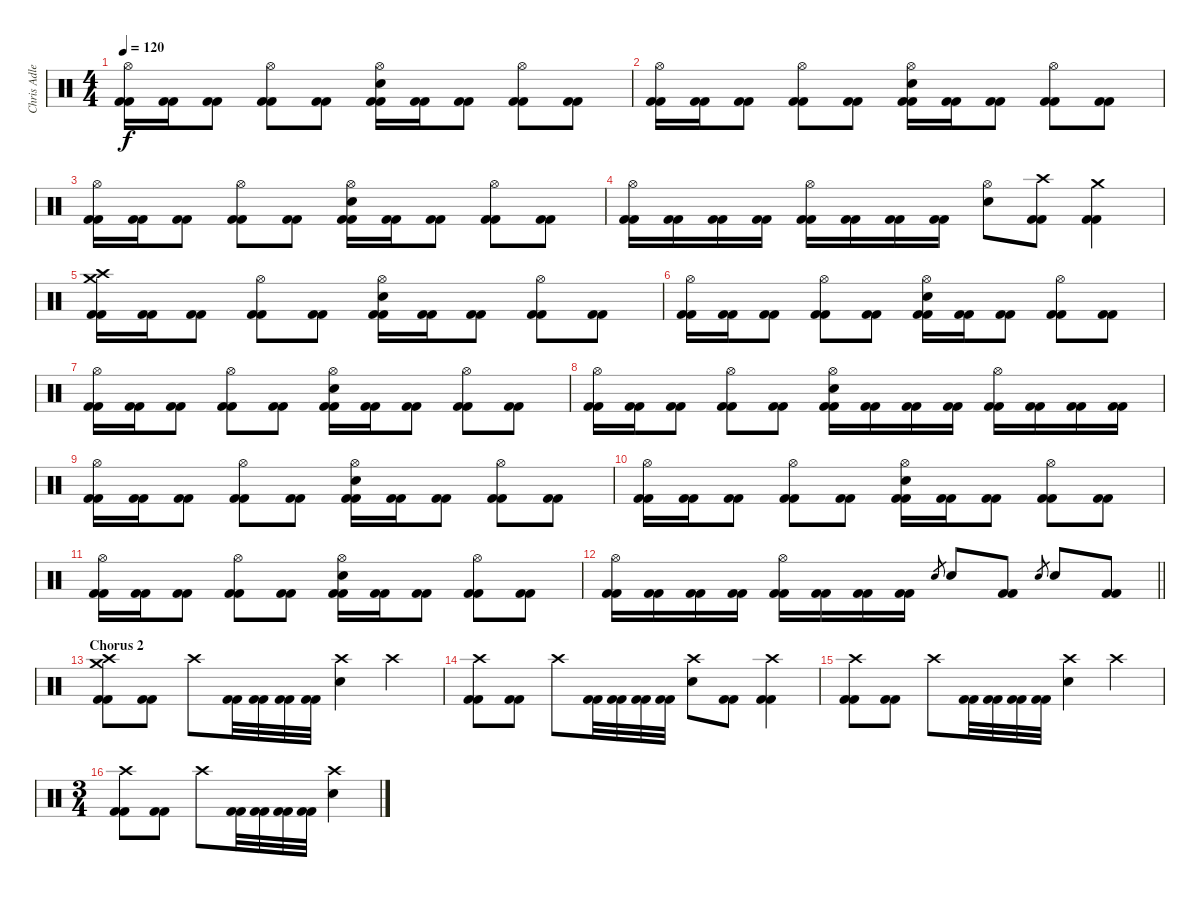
\track ("Chris Adler" "Chris Adle") {instrument percussion}
\staff {score}
\articulation defaults
\ts (4 4)
\tempo 120
\clef neutral
\ks c
("Hi-Hat (open)" "Kick (hit) 2" "Kick (hit) 2").16{dy f} ("Kick (hit) 2" "Kick (hit) 2").16 ("Kick (hit) 2" "Kick (hit) 2").8 ("Hi-Hat (open)" "Kick (hit) 2" "Kick (hit) 2").8 ("Kick (hit) 2" "Kick (hit) 2").8 ("Hi-Hat (open)" "Electric Snare (hit)" "Kick (hit) 2" "Kick (hit) 2").16 ("Kick (hit) 2" "Kick (hit) 2").16 ("Kick (hit) 2" "Kick (hit) 2").8 ("Hi-Hat (open)" "Kick (hit) 2" "Kick (hit) 2").8 ("Kick (hit) 2" "Kick (hit) 2").8 |
("Hi-Hat (open)" "Kick (hit) 2" "Kick (hit) 2").16 ("Kick (hit) 2" "Kick (hit) 2").16 ("Kick (hit) 2" "Kick (hit) 2").8 ("Hi-Hat (open)" "Kick (hit) 2" "Kick (hit) 2").8 ("Kick (hit) 2" "Kick (hit) 2").8 ("Hi-Hat (open)" "Electric Snare (hit)" "Kick (hit) 2" "Kick (hit) 2").16 ("Kick (hit) 2" "Kick (hit) 2").16 ("Kick (hit) 2" "Kick (hit) 2").8 ("Hi-Hat (open)" "Kick (hit) 2" "Kick (hit) 2").8 ("Kick (hit) 2" "Kick (hit) 2").8 |
("Hi-Hat (open)" "Kick (hit) 2" "Kick (hit) 2").16 ("Kick (hit) 2" "Kick (hit) 2").16 ("Kick (hit) 2" "Kick (hit) 2").8 ("Hi-Hat (open)" "Kick (hit) 2" "Kick (hit) 2").8 ("Kick (hit) 2" "Kick (hit) 2").8 ("Hi-Hat (open)" "Electric Snare (hit)" "Kick (hit) 2" "Kick (hit) 2").16 ("Kick (hit) 2" "Kick (hit) 2").16 ("Kick (hit) 2" "Kick (hit) 2").8 ("Hi-Hat (open)" "Kick (hit) 2" "Kick (hit) 2").8 ("Kick (hit) 2" "Kick (hit) 2").8 |
("Hi-Hat (open)" "Kick (hit) 2" "Kick (hit) 2").16 ("Kick (hit) 2" "Kick (hit) 2").16 ("Kick (hit) 2" "Kick (hit) 2").16 ("Kick (hit) 2" "Kick (hit) 2").16 ("Hi-Hat (open)" "Kick (hit) 2" "Kick (hit) 2").16 ("Kick (hit) 2" "Kick (hit) 2").16 ("Kick (hit) 2" "Kick (hit) 2").16 ("Kick (hit) 2" "Kick (hit) 2").16 ("Hi-Hat (open)" "Electric Snare (hit)").8 ("Crash high (hit)" "Kick (hit) 2" "Kick (hit) 2").8 ("Crash medium (hit)" "Kick (hit) 2" "Kick (hit) 2").4 |
("Crash medium (hit)" "Crash high (hit)" "Kick (hit) 2" "Kick (hit) 2").16 ("Kick (hit) 2" "Kick (hit) 2").16 ("Kick (hit) 2" "Kick (hit) 2").8 ("Hi-Hat (open)" "Kick (hit) 2" "Kick (hit) 2").8 ("Kick (hit) 2" "Kick (hit) 2").8 ("Hi-Hat (open)" "Electric Snare (hit)" "Kick (hit) 2" "Kick (hit) 2").16 ("Kick (hit) 2" "Kick (hit) 2").16 ("Kick (hit) 2" "Kick (hit) 2").8 ("Hi-Hat (open)" "Kick (hit) 2" "Kick (hit) 2").8 ("Kick (hit) 2" "Kick (hit) 2").8 |
("Hi-Hat (open)" "Kick (hit) 2" "Kick (hit) 2").16 ("Kick (hit) 2" "Kick (hit) 2").16 ("Kick (hit) 2" "Kick (hit) 2").8 ("Hi-Hat (open)" "Kick (hit) 2" "Kick (hit) 2").8 ("Kick (hit) 2" "Kick (hit) 2").8 ("Hi-Hat (open)" "Electric Snare (hit)" "Kick (hit) 2" "Kick (hit) 2").16 ("Kick (hit) 2" "Kick (hit) 2").16 ("Kick (hit) 2" "Kick (hit) 2").8 ("Hi-Hat (open)" "Kick (hit) 2" "Kick (hit) 2").8 ("Kick (hit) 2" "Kick (hit) 2").8 |
("Hi-Hat (open)" "Kick (hit) 2" "Kick (hit) 2").16 ("Kick (hit) 2" "Kick (hit) 2").16 ("Kick (hit) 2" "Kick (hit) 2").8 ("Hi-Hat (open)" "Kick (hit) 2" "Kick (hit) 2").8 ("Kick (hit) 2" "Kick (hit) 2").8 ("Hi-Hat (open)" "Electric Snare (hit)" "Kick (hit) 2" "Kick (hit) 2").16 ("Kick (hit) 2" "Kick (hit) 2").16 ("Kick (hit) 2" "Kick (hit) 2").8 ("Hi-Hat (open)" "Kick (hit) 2" "Kick (hit) 2").8 ("Kick (hit) 2" "Kick (hit) 2").8 |
("Hi-Hat (open)" "Kick (hit) 2" "Kick (hit) 2").16 ("Kick (hit) 2" "Kick (hit) 2").16 ("Kick (hit) 2" "Kick (hit) 2").8 ("Hi-Hat (open)" "Kick (hit) 2" "Kick (hit) 2").8 ("Kick (hit) 2" "Kick (hit) 2").8 ("Hi-Hat (open)" "Electric Snare (hit)" "Kick (hit) 2" "Kick (hit) 2").16 ("Kick (hit) 2" "Kick (hit) 2").16 ("Kick (hit) 2" "Kick (hit) 2").16 ("Kick (hit) 2" "Kick (hit) 2").16 ("Hi-Hat (open)" "Kick (hit) 2" "Kick (hit) 2").16 ("Kick (hit) 2" "Kick (hit) 2").16 ("Kick (hit) 2" "Kick (hit) 2").16 ("Kick (hit) 2" "Kick (hit) 2").16 |
("Hi-Hat (open)" "Kick (hit) 2" "Kick (hit) 2").16 ("Kick (hit) 2" "Kick (hit) 2").16 ("Kick (hit) 2" "Kick (hit) 2").8 ("Hi-Hat (open)" "Kick (hit) 2" "Kick (hit) 2").8 ("Kick (hit) 2" "Kick (hit) 2").8 ("Hi-Hat (open)" "Electric Snare (hit)" "Kick (hit) 2" "Kick (hit) 2").16 ("Kick (hit) 2" "Kick (hit) 2").16 ("Kick (hit) 2" "Kick (hit) 2").8 ("Hi-Hat (open)" "Kick (hit) 2" "Kick (hit) 2").8 ("Kick (hit) 2" "Kick (hit) 2").8 |
("Hi-Hat (open)" "Kick (hit) 2" "Kick (hit) 2").16 ("Kick (hit) 2" "Kick (hit) 2").16 ("Kick (hit) 2" "Kick (hit) 2").8 ("Hi-Hat (open)" "Kick (hit) 2" "Kick (hit) 2").8 ("Kick (hit) 2" "Kick (hit) 2").8 ("Hi-Hat (open)" "Electric Snare (hit)" "Kick (hit) 2" "Kick (hit) 2").16 ("Kick (hit) 2" "Kick (hit) 2").16 ("Kick (hit) 2" "Kick (hit) 2").8 ("Hi-Hat (open)" "Kick (hit) 2" "Kick (hit) 2").8 ("Kick (hit) 2" "Kick (hit) 2").8 |
("Hi-Hat (open)" "Kick (hit) 2" "Kick (hit) 2").16 ("Kick (hit) 2" "Kick (hit) 2").16 ("Kick (hit) 2" "Kick (hit) 2").8 ("Hi-Hat (open)" "Kick (hit) 2" "Kick (hit) 2").8 ("Kick (hit) 2" "Kick (hit) 2").8 ("Hi-Hat (open)" "Electric Snare (hit)" "Kick (hit) 2" "Kick (hit) 2").16 ("Kick (hit) 2" "Kick (hit) 2").16 ("Kick (hit) 2" "Kick (hit) 2").8 ("Hi-Hat (open)" "Kick (hit) 2" "Kick (hit) 2").8 ("Kick (hit) 2" "Kick (hit) 2").8 |
\barLineRight lightlight
("Hi-Hat (open)" "Kick (hit) 2" "Kick (hit) 2").16 ("Kick (hit) 2" "Kick (hit) 2").16 ("Kick (hit) 2" "Kick (hit) 2").16 ("Kick (hit) 2" "Kick (hit) 2").16 ("Hi-Hat (open)" "Kick (hit) 2" "Kick (hit) 2").16 ("Kick (hit) 2" "Kick (hit) 2").16 ("Kick (hit) 2" "Kick (hit) 2").16 ("Kick (hit) 2" "Kick (hit) 2").16 "Electric Snare (hit)".8{gr} "Electric Snare (hit)".8 ("Kick (hit) 2" "Kick (hit) 2").8 "Electric Snare (hit)".8{gr} "Electric Snare (hit)".8 ("Kick (hit) 2" "Kick (hit) 2").8 |
\section ("" "Chorus 2")
("Crash medium (hit)" "Crash high (hit)" "Kick (hit) 2" "Kick (hit) 2").8 ("Kick (hit) 2" "Kick (hit) 2").8 "Crash high (hit)".8 ("Kick (hit) 2" "Kick (hit) 2").32 ("Kick (hit) 2" "Kick (hit) 2").32 ("Kick (hit) 2" "Kick (hit) 2").32 ("Kick (hit) 2" "Kick (hit) 2").32 ("Crash high (hit)" "Electric Snare (hit)").4 "Crash high (hit)".4 |
("Crash high (hit)" "Kick (hit) 2" "Kick (hit) 2").8 ("Kick (hit) 2" "Kick (hit) 2").8 "Crash high (hit)".8 ("Kick (hit) 2" "Kick (hit) 2").32 ("Kick (hit) 2" "Kick (hit) 2").32 ("Kick (hit) 2" "Kick (hit) 2").32 ("Kick (hit) 2" "Kick (hit) 2").32 ("Crash high (hit)" "Electric Snare (hit)").8 ("Kick (hit) 2" "Kick (hit) 2").8 ("Crash high (hit)" "Kick (hit) 2" "Kick (hit) 2").4 |
("Crash high (hit)" "Kick (hit) 2" "Kick (hit) 2").8 ("Kick (hit) 2" "Kick (hit) 2").8 "Crash high (hit)".8 ("Kick (hit) 2" "Kick (hit) 2").32 ("Kick (hit) 2" "Kick (hit) 2").32 ("Kick (hit) 2" "Kick (hit) 2").32 ("Kick (hit) 2" "Kick (hit) 2").32 ("Crash high (hit)" "Electric Snare (hit)").4 "Crash high (hit)".4 |
\ts (3 4)
("Crash high (hit)" "Kick (hit) 2" "Kick (hit) 2").8 ("Kick (hit) 2" "Kick (hit) 2").8 "Crash high (hit)".8 ("Kick (hit) 2" "Kick (hit) 2").32 ("Kick (hit) 2" "Kick (hit) 2").32 ("Kick (hit) 2" "Kick (hit) 2").32 ("Kick (hit) 2" "Kick (hit) 2").32 ("Crash high (hit)" "Electric Snare (hit)").4
